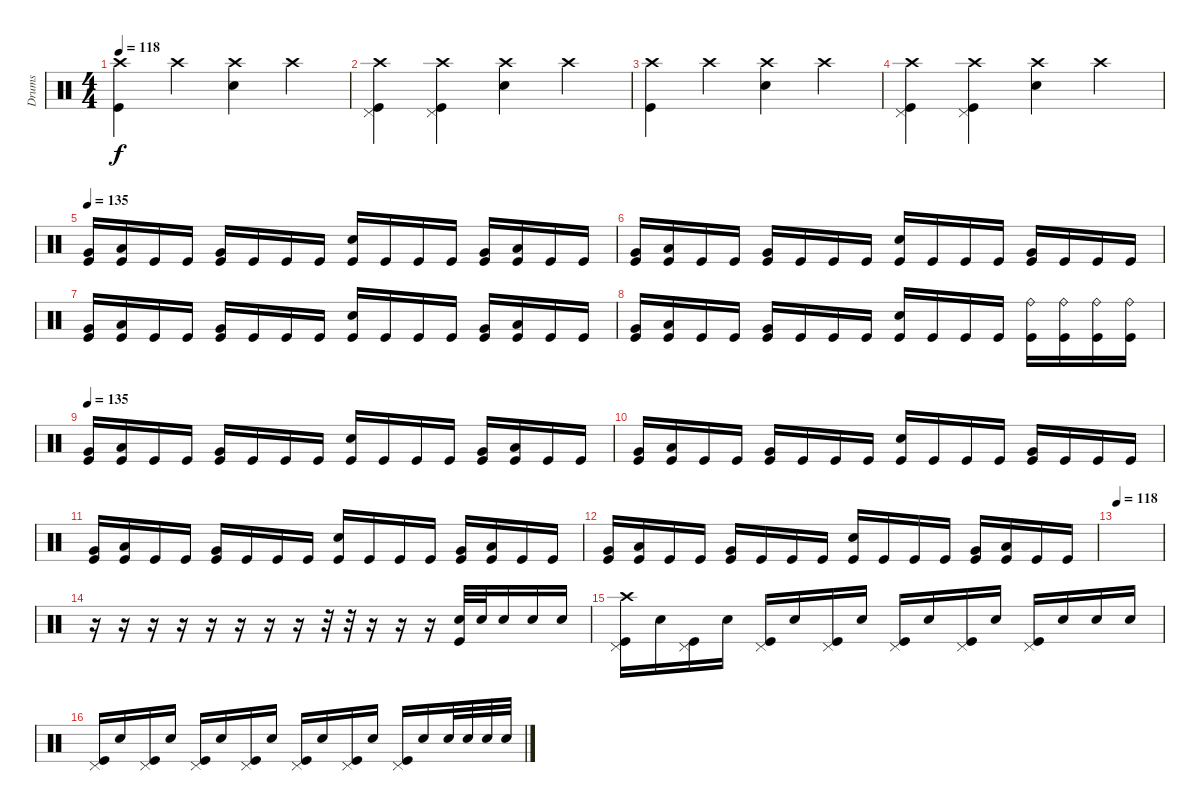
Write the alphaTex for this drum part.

\track ("Drums" "Drums") {instrument percussion}
\staff {score}
\articulation defaults
\ts (4 4)
\tempo 118
\clef neutral
\ks c
("Crash high (hit)" "Kick (hit)").4{dy f} "Crash high (hit)".4 ("Crash high (hit)" "Snare (hit) 2").4 "Crash high (hit)".4 |
("Crash high (hit)" "Pedal Hi-Hat (hit)" "Kick (hit)").4 ("Crash high (hit)" "Pedal Hi-Hat (hit)" "Kick (hit)").4 ("Crash high (hit)" "Snare (hit) 2").4 "Crash high (hit)".4 |
("Crash high (hit)" "Kick (hit)").4 "Crash high (hit)".4 ("Crash high (hit)" "Snare (hit) 2").4 "Crash high (hit)".4 |
("Crash high (hit)" "Pedal Hi-Hat (hit)" "Kick (hit)").4 ("Crash high (hit)" "Pedal Hi-Hat (hit)" "Kick (hit)").4 ("Crash high (hit)" "Snare (hit) 2").4 "Crash high (hit)".4 |
\tempo 135
("Very Low Tom (hit)" "Kick (hit)").16 ("Low Tom (hit)" "Kick (hit)").16 "Kick (hit)".16 "Kick (hit)".16 ("Very Low Tom (hit)" "Kick (hit)").16 "Kick (hit)".16 "Kick (hit)".16 "Kick (hit)".16 ("Snare (hit) 2" "Kick (hit)").16 "Kick (hit)".16 "Kick (hit)".16 "Kick (hit)".16 ("Very Low Tom (hit)" "Kick (hit)").16 ("Low Tom (hit)" "Kick (hit)").16 "Kick (hit)".16 "Kick (hit)".16 |
("Very Low Tom (hit)" "Kick (hit)").16 ("Low Tom (hit)" "Kick (hit)").16 "Kick (hit)".16 "Kick (hit)".16 ("Very Low Tom (hit)" "Kick (hit)").16 "Kick (hit)".16 "Kick (hit)".16 "Kick (hit)".16 ("Snare (hit) 2" "Kick (hit)").16 "Kick (hit)".16 "Kick (hit)".16 "Kick (hit)".16 ("Very Low Tom (hit)" "Kick (hit)").16 "Kick (hit)".16 "Kick (hit)".16 "Kick (hit)".16 |
("Very Low Tom (hit)" "Kick (hit)").16 ("Low Tom (hit)" "Kick (hit)").16 "Kick (hit)".16 "Kick (hit)".16 ("Very Low Tom (hit)" "Kick (hit)").16 "Kick (hit)".16 "Kick (hit)".16 "Kick (hit)".16 ("Snare (hit) 2" "Kick (hit)").16 "Kick (hit)".16 "Kick (hit)".16 "Kick (hit)".16 ("Very Low Tom (hit)" "Kick (hit)").16 ("Low Tom (hit)" "Kick (hit)").16 "Kick (hit)".16 "Kick (hit)".16 |
("Very Low Tom (hit)" "Kick (hit)").16 ("Low Tom (hit)" "Kick (hit)").16 "Kick (hit)".16 "Kick (hit)".16 ("Very Low Tom (hit)" "Kick (hit)").16 "Kick (hit)".16 "Kick (hit)".16 "Kick (hit)".16 ("Snare (hit) 2" "Kick (hit)").16 "Kick (hit)".16 "Kick (hit)".16 "Kick (hit)".16 ("Ride (bell)" "Kick (hit)").16 ("Ride (bell)" "Kick (hit)").16 ("Ride (bell)" "Kick (hit)").16 ("Ride (bell)" "Kick (hit)").16 |
\tempo 135
("Very Low Tom (hit)" "Kick (hit)").16 ("Low Tom (hit)" "Kick (hit)").16 "Kick (hit)".16 "Kick (hit)".16 ("Very Low Tom (hit)" "Kick (hit)").16 "Kick (hit)".16 "Kick (hit)".16 "Kick (hit)".16 ("Snare (hit) 2" "Kick (hit)").16 "Kick (hit)".16 "Kick (hit)".16 "Kick (hit)".16 ("Very Low Tom (hit)" "Kick (hit)").16 ("Low Tom (hit)" "Kick (hit)").16 "Kick (hit)".16 "Kick (hit)".16 |
("Very Low Tom (hit)" "Kick (hit)").16 ("Low Tom (hit)" "Kick (hit)").16 "Kick (hit)".16 "Kick (hit)".16 ("Very Low Tom (hit)" "Kick (hit)").16 "Kick (hit)".16 "Kick (hit)".16 "Kick (hit)".16 ("Snare (hit) 2" "Kick (hit)").16 "Kick (hit)".16 "Kick (hit)".16 "Kick (hit)".16 ("Very Low Tom (hit)" "Kick (hit)").16 "Kick (hit)".16 "Kick (hit)".16 "Kick (hit)".16 |
("Very Low Tom (hit)" "Kick (hit)").16 ("Low Tom (hit)" "Kick (hit)").16 "Kick (hit)".16 "Kick (hit)".16 ("Very Low Tom (hit)" "Kick (hit)").16 "Kick (hit)".16 "Kick (hit)".16 "Kick (hit)".16 ("Snare (hit) 2" "Kick (hit)").16 "Kick (hit)".16 "Kick (hit)".16 "Kick (hit)".16 ("Very Low Tom (hit)" "Kick (hit)").16 ("Low Tom (hit)" "Kick (hit)").16 "Kick (hit)".16 "Kick (hit)".16 |
("Very Low Tom (hit)" "Kick (hit)").16 ("Low Tom (hit)" "Kick (hit)").16 "Kick (hit)".16 "Kick (hit)".16 ("Very Low Tom (hit)" "Kick (hit)").16 "Kick (hit)".16 "Kick (hit)".16 "Kick (hit)".16 ("Snare (hit) 2" "Kick (hit)").16 "Kick (hit)".16 "Kick (hit)".16 "Kick (hit)".16 ("Very Low Tom (hit)" "Kick (hit)").16 ("Low Tom (hit)" "Kick (hit)").16 "Kick (hit)".16 "Kick (hit)".16 |
\tempo 118
|
r.16 r.16 r.16 r.16 r.16 r.16 r.16 r.16 r.32 r.32 r.16 r.16 r.16 ("Snare (hit) 2" "Kick (hit)").32 "Snare (hit) 2".32 "Snare (hit) 2".16 "Snare (hit) 2".16 "Snare (hit) 2".16 |
("Crash high (hit)" "Pedal Hi-Hat (hit)" "Kick (hit)").16 "Snare (hit) 2".16 ("Pedal Hi-Hat (hit)" "Kick (hit)").16 "Snare (hit) 2".16 ("Pedal Hi-Hat (hit)" "Kick (hit)").16 "Snare (hit) 2".16 ("Pedal Hi-Hat (hit)" "Kick (hit)").16 "Snare (hit) 2".16 ("Pedal Hi-Hat (hit)" "Kick (hit)").16 "Snare (hit) 2".16 ("Pedal Hi-Hat (hit)" "Kick (hit)").16 "Snare (hit) 2".16 ("Pedal Hi-Hat (hit)" "Kick (hit)").16 "Snare (hit) 2".16 "Snare (hit) 2".16 "Snare (hit) 2".16 |
("Pedal Hi-Hat (hit)" "Kick (hit)").16 "Snare (hit) 2".16 ("Pedal Hi-Hat (hit)" "Kick (hit)").16 "Snare (hit) 2".16 ("Pedal Hi-Hat (hit)" "Kick (hit)").16 "Snare (hit) 2".16 ("Pedal Hi-Hat (hit)" "Kick (hit)").16 "Snare (hit) 2".16 ("Pedal Hi-Hat (hit)" "Kick (hit)").16 "Snare (hit) 2".16 ("Pedal Hi-Hat (hit)" "Kick (hit)").16 "Snare (hit) 2".16 ("Pedal Hi-Hat (hit)" "Kick (hit)").16 "Snare (hit) 2".16 "Snare (hit) 2".32 "Snare (hit) 2".32 "Snare (hit) 2".32 "Snare (hit) 2".32
